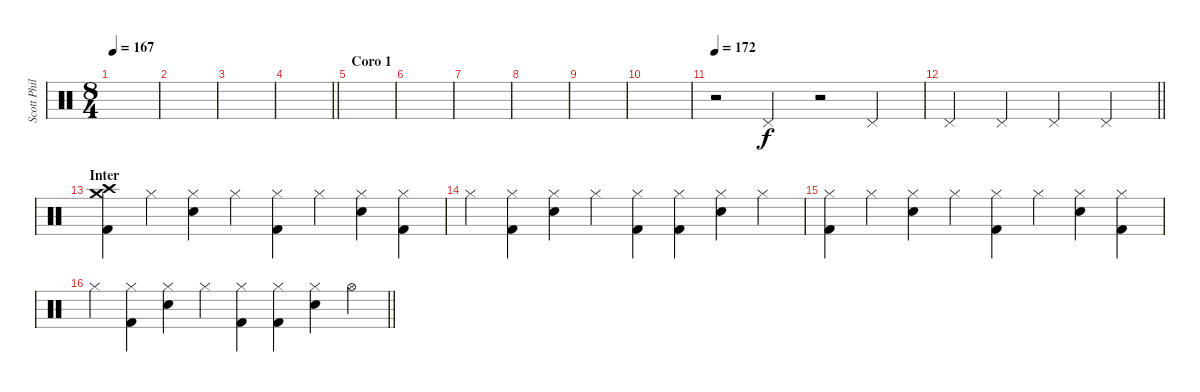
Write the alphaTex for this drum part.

\track ("Scott Phillips [Drums]" "Scott Phil") {instrument percussion}
\staff {score}
\articulation defaults
\ts (8 4)
\tempo 167
\clef neutral
\ks c
|
|
|
\barLineRight lightlight
|
\section ("" "Coro 1")
|
|
|
|
|
|
\tempo 172
r.2 "Pedal Hi-Hat (hit)".2 r.2 "Pedal Hi-Hat (hit)".2 |
\barLineRight lightlight "Pedal Hi-Hat (hit)".2 "Pedal Hi-Hat (hit)".2 "Pedal Hi-Hat (hit)".2 "Pedal Hi-Hat (hit)".2
|
\section ("" "Inter")
("Crash high (hit)" "Crash medium (hit)" "Kick (hit) 2").4 "Hi-Hat (closed)".4 ("Hi-Hat (closed)" "Electric Snare (hit)").4 "Hi-Hat (closed)".4 ("Hi-Hat (closed)" "Kick (hit) 2").4 "Hi-Hat (closed)".4 ("Hi-Hat (closed)" "Electric Snare (hit)").4 ("Hi-Hat (closed)" "Kick (hit) 2").4 |
"Hi-Hat (closed)".4 ("Hi-Hat (closed)" "Kick (hit) 2").4 ("Hi-Hat (closed)" "Electric Snare (hit)").4 "Hi-Hat (closed)".4 ("Hi-Hat (closed)" "Kick (hit) 2").4 ("Hi-Hat (closed)" "Kick (hit) 2").4 ("Hi-Hat (closed)" "Electric Snare (hit)").4 "Hi-Hat (closed)".4 |
("Hi-Hat (closed)" "Kick (hit) 2").4 "Hi-Hat (closed)".4 ("Hi-Hat (closed)" "Electric Snare (hit)").4 "Hi-Hat (closed)".4 ("Hi-Hat (closed)" "Kick (hit) 2").4 "Hi-Hat (closed)".4 ("Hi-Hat (closed)" "Electric Snare (hit)").4 ("Hi-Hat (closed)" "Kick (hit) 2").4 |
\barLineRight lightlight "Hi-Hat (closed)".4
("Hi-Hat (closed)" "Kick (hit) 2").4 ("Hi-Hat (closed)" "Electric Snare (hit)").4 "Hi-Hat (closed)".4 ("Hi-Hat (closed)" "Kick (hit) 2").4 ("Hi-Hat (closed)" "Kick (hit) 2").4 ("Hi-Hat (closed)" "Electric Snare (hit)").4 "Hi-Hat (open)".4
